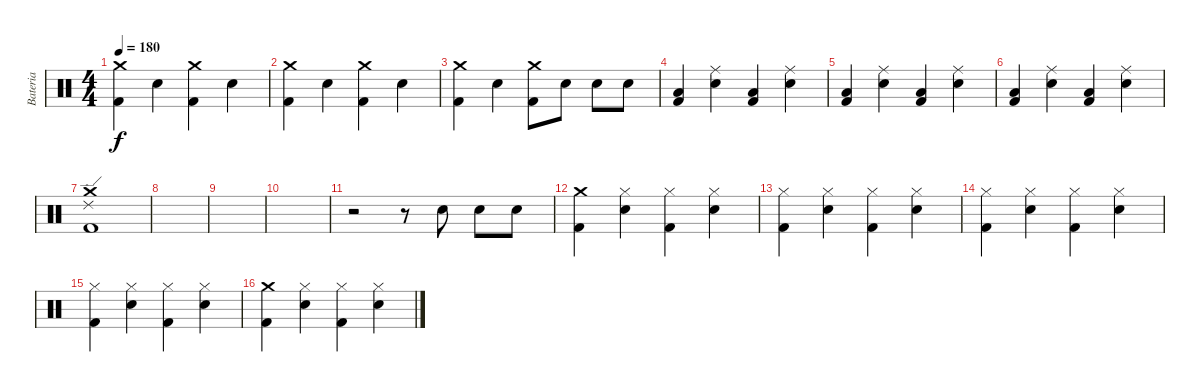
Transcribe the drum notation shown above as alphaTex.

\track ("Bateria" "Bateria") {instrument percussion}
\staff {score}
\articulation defaults
\ts (4 4)
\tempo 180
\clef neutral
\ks c
("Crash medium (hit)" "Kick (hit) 2").4{dy f} "Electric Snare (hit)".4 ("Crash medium (hit)" "Kick (hit) 2").4 "Electric Snare (hit)".4 |
("Crash medium (hit)" "Kick (hit) 2").4 "Electric Snare (hit)".4 ("Crash medium (hit)" "Kick (hit) 2").4 "Electric Snare (hit)".4 |
("Crash medium (hit)" "Kick (hit) 2").4 "Electric Snare (hit)".4 ("Crash medium (hit)" "Kick (hit) 2").8 "Electric Snare (hit)".8 "Electric Snare (hit)".8 "Electric Snare (hit)".8 |
("Low Tom (hit)" "Kick (hit) 2").4 ("Ride (middle)" "Electric Snare (hit)").4 ("Low Tom (hit)" "Kick (hit) 2").4 ("Ride (middle)" "Electric Snare (hit)").4 |
("Low Tom (hit)" "Kick (hit) 2").4 ("Ride (middle)" "Electric Snare (hit)").4 ("Low Tom (hit)" "Kick (hit) 2").4 ("Ride (middle)" "Electric Snare (hit)").4 |
("Low Tom (hit)" "Kick (hit) 2").4 ("Ride (middle)" "Electric Snare (hit)").4 ("Low Tom (hit)" "Kick (hit) 2").4 ("Ride (middle)" "Electric Snare (hit)").4 |
("Crash medium (hit)" "Ride (edge) 2" "Kick (hit) 2").1 |
|
|
|
r.2 r.8 "Electric Snare (hit)".8 "Electric Snare (hit)".8 "Electric Snare (hit)".8 |
("Crash medium (hit)" "Kick (hit) 2").4 ("Hi-Hat (closed)" "Electric Snare (hit)").4 ("Hi-Hat (closed)" "Kick (hit) 2").4 ("Hi-Hat (closed)" "Electric Snare (hit)").4 |
("Hi-Hat (closed)" "Kick (hit) 2").4 ("Hi-Hat (closed)" "Electric Snare (hit)").4 ("Hi-Hat (closed)" "Kick (hit) 2").4 ("Hi-Hat (closed)" "Electric Snare (hit)").4 |
("Hi-Hat (closed)" "Kick (hit) 2").4 ("Hi-Hat (closed)" "Electric Snare (hit)").4 ("Hi-Hat (closed)" "Kick (hit) 2").4 ("Hi-Hat (closed)" "Electric Snare (hit)").4 |
("Hi-Hat (closed)" "Kick (hit) 2").4 ("Hi-Hat (closed)" "Electric Snare (hit)").4 ("Hi-Hat (closed)" "Kick (hit) 2").4 ("Hi-Hat (closed)" "Electric Snare (hit)").4 |
("Crash medium (hit)" "Kick (hit) 2").4 ("Hi-Hat (closed)" "Electric Snare (hit)").4 ("Hi-Hat (closed)" "Kick (hit) 2").4 ("Hi-Hat (closed)" "Electric Snare (hit)").4
